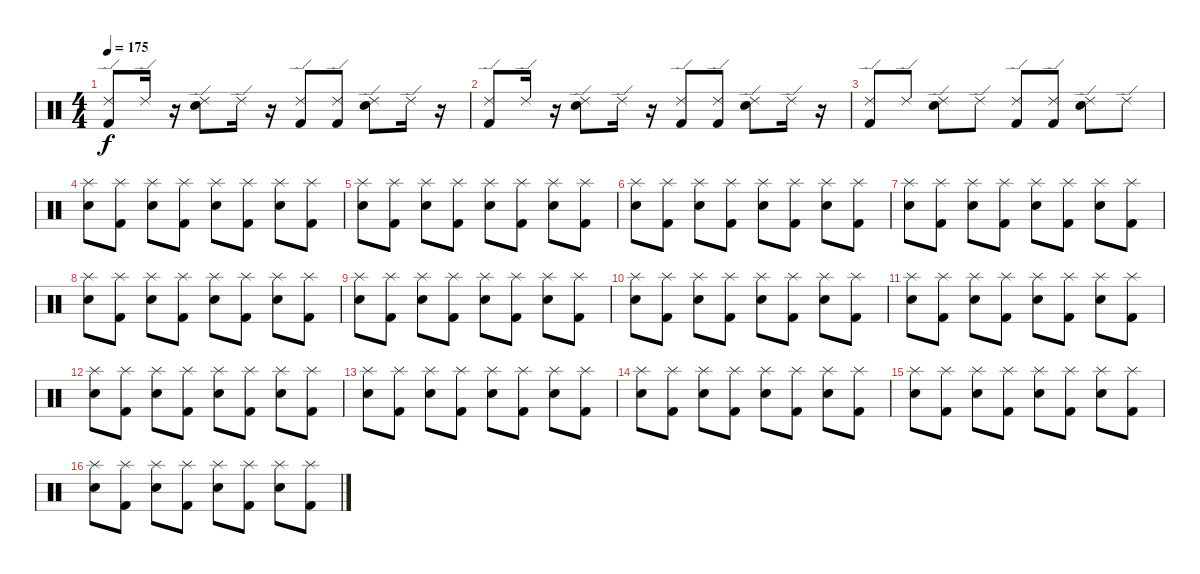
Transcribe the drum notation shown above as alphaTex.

\track "" {instrument percussion}
\staff {score}
\articulation defaults
\ts (4 4)
\tempo 175
\clef neutral
\ks c
("Ride (edge) 2" "Kick (hit) 2").8{dy f} "Ride (edge) 2".16 r.16 ("Ride (edge) 2" "Electric Snare (hit)").8 "Ride (edge) 2".16 r.16 ("Ride (edge) 2" "Kick (hit) 2").8 ("Ride (edge) 2" "Kick (hit) 2").8 ("Ride (edge) 2" "Electric Snare (hit)").8 "Ride (edge) 2".16 r.16 |
("Ride (edge) 2" "Kick (hit) 2").8 "Ride (edge) 2".16 r.16 ("Ride (edge) 2" "Electric Snare (hit)").8 "Ride (edge) 2".16 r.16 ("Ride (edge) 2" "Kick (hit) 2").8 ("Ride (edge) 2" "Kick (hit) 2").8 ("Ride (edge) 2" "Electric Snare (hit)").8 "Ride (edge) 2".16 r.16 |
("Kick (hit) 2" "Ride (edge) 2").8 "Ride (edge) 2".8 ("Electric Snare (hit)" "Ride (edge) 2").8 "Ride (edge) 2".8 ("Kick (hit) 2" "Ride (edge) 2").8 ("Ride (edge) 2" "Kick (hit) 2").8 ("Electric Snare (hit)" "Ride (edge) 2").8 "Ride (edge) 2".8 |
("Splash (hit)" "Electric Snare (hit)").8 ("Splash (hit)" "Kick (hit) 2").8 ("Splash (hit)" "Electric Snare (hit)").8 ("Splash (hit)" "Kick (hit) 2").8 ("Splash (hit)" "Electric Snare (hit)").8 ("Splash (hit)" "Kick (hit) 2").8 ("Splash (hit)" "Electric Snare (hit)").8 ("Splash (hit)" "Kick (hit) 2").8 |
("Splash (hit)" "Electric Snare (hit)").8 ("Splash (hit)" "Kick (hit) 2").8 ("Splash (hit)" "Electric Snare (hit)").8 ("Splash (hit)" "Kick (hit) 2").8 ("Splash (hit)" "Electric Snare (hit)").8 ("Splash (hit)" "Kick (hit) 2").8 ("Splash (hit)" "Electric Snare (hit)").8 ("Splash (hit)" "Kick (hit) 2").8 |
("Splash (hit)" "Electric Snare (hit)").8 ("Splash (hit)" "Kick (hit) 2").8 ("Splash (hit)" "Electric Snare (hit)").8 ("Splash (hit)" "Kick (hit) 2").8 ("Splash (hit)" "Electric Snare (hit)").8 ("Splash (hit)" "Kick (hit) 2").8 ("Splash (hit)" "Electric Snare (hit)").8 ("Splash (hit)" "Kick (hit) 2").8 |
("Splash (hit)" "Electric Snare (hit)").8 ("Splash (hit)" "Kick (hit) 2").8 ("Splash (hit)" "Electric Snare (hit)").8 ("Splash (hit)" "Kick (hit) 2").8 ("Splash (hit)" "Electric Snare (hit)").8 ("Splash (hit)" "Kick (hit) 2").8 ("Splash (hit)" "Electric Snare (hit)").8 ("Splash (hit)" "Kick (hit) 2").8 |
("Splash (hit)" "Electric Snare (hit)").8 ("Splash (hit)" "Kick (hit) 2").8 ("Splash (hit)" "Electric Snare (hit)").8 ("Splash (hit)" "Kick (hit) 2").8 ("Splash (hit)" "Electric Snare (hit)").8 ("Splash (hit)" "Kick (hit) 2").8 ("Splash (hit)" "Electric Snare (hit)").8 ("Splash (hit)" "Kick (hit) 2").8 |
("Splash (hit)" "Electric Snare (hit)").8 ("Splash (hit)" "Kick (hit) 2").8 ("Splash (hit)" "Electric Snare (hit)").8 ("Splash (hit)" "Kick (hit) 2").8 ("Splash (hit)" "Electric Snare (hit)").8 ("Splash (hit)" "Kick (hit) 2").8 ("Splash (hit)" "Electric Snare (hit)").8 ("Splash (hit)" "Kick (hit) 2").8 |
("Splash (hit)" "Electric Snare (hit)").8 ("Splash (hit)" "Kick (hit) 2").8 ("Splash (hit)" "Electric Snare (hit)").8 ("Splash (hit)" "Kick (hit) 2").8 ("Splash (hit)" "Electric Snare (hit)").8 ("Splash (hit)" "Kick (hit) 2").8 ("Splash (hit)" "Electric Snare (hit)").8 ("Splash (hit)" "Kick (hit) 2").8 |
("Splash (hit)" "Electric Snare (hit)").8 ("Splash (hit)" "Kick (hit) 2").8 ("Splash (hit)" "Electric Snare (hit)").8 ("Splash (hit)" "Kick (hit) 2").8 ("Splash (hit)" "Electric Snare (hit)").8 ("Splash (hit)" "Kick (hit) 2").8 ("Splash (hit)" "Electric Snare (hit)").8 ("Splash (hit)" "Kick (hit) 2").8 |
("Splash (hit)" "Electric Snare (hit)").8 ("Splash (hit)" "Kick (hit) 2").8 ("Splash (hit)" "Electric Snare (hit)").8 ("Splash (hit)" "Kick (hit) 2").8 ("Splash (hit)" "Electric Snare (hit)").8 ("Splash (hit)" "Kick (hit) 2").8 ("Splash (hit)" "Electric Snare (hit)").8 ("Splash (hit)" "Kick (hit) 2").8 |
("Splash (hit)" "Electric Snare (hit)").8 ("Splash (hit)" "Kick (hit) 2").8 ("Splash (hit)" "Electric Snare (hit)").8 ("Splash (hit)" "Kick (hit) 2").8 ("Splash (hit)" "Electric Snare (hit)").8 ("Splash (hit)" "Kick (hit) 2").8 ("Splash (hit)" "Electric Snare (hit)").8 ("Splash (hit)" "Kick (hit) 2").8 |
("Splash (hit)" "Electric Snare (hit)").8 ("Splash (hit)" "Kick (hit) 2").8 ("Splash (hit)" "Electric Snare (hit)").8 ("Splash (hit)" "Kick (hit) 2").8 ("Splash (hit)" "Electric Snare (hit)").8 ("Splash (hit)" "Kick (hit) 2").8 ("Splash (hit)" "Electric Snare (hit)").8 ("Splash (hit)" "Kick (hit) 2").8 |
("Splash (hit)" "Electric Snare (hit)").8 ("Splash (hit)" "Kick (hit) 2").8 ("Splash (hit)" "Electric Snare (hit)").8 ("Splash (hit)" "Kick (hit) 2").8 ("Splash (hit)" "Electric Snare (hit)").8 ("Splash (hit)" "Kick (hit) 2").8 ("Splash (hit)" "Electric Snare (hit)").8 ("Splash (hit)" "Kick (hit) 2").8 |
("Splash (hit)" "Electric Snare (hit)").8 ("Splash (hit)" "Kick (hit) 2").8 ("Splash (hit)" "Electric Snare (hit)").8 ("Splash (hit)" "Kick (hit) 2").8 ("Splash (hit)" "Electric Snare (hit)").8 ("Splash (hit)" "Kick (hit) 2").8 ("Splash (hit)" "Electric Snare (hit)").8 ("Splash (hit)" "Kick (hit) 2").8
